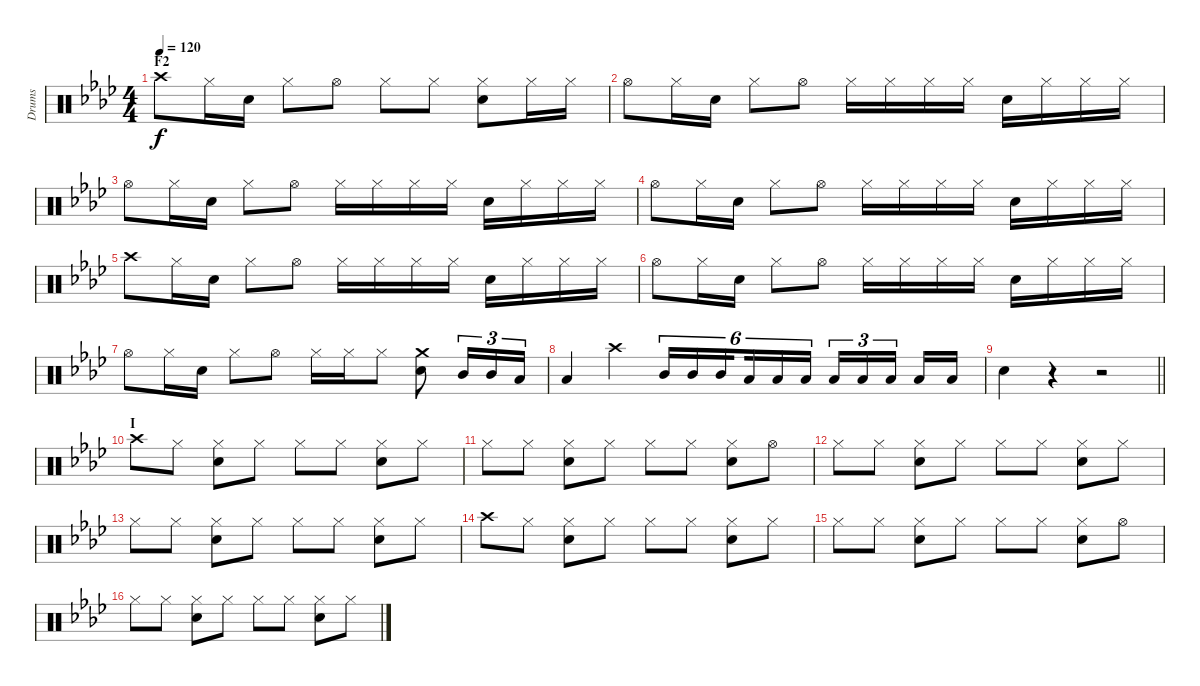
\track ("Drums" "Drums") {instrument percussion}
\staff {score}
\articulation defaults
\ts (4 4)
\section ("" "F2")
\tempo 120
\clef neutral
\ks ab "Crash high (hit)".8{dy f} "Hi-Hat (closed)".16 "Snare (hit) 2".16 "Hi-Hat (closed)".8 "Hi-Hat (open)".8 "Hi-Hat (closed)".8 "Hi-Hat (closed)".8
("Hi-Hat (closed)" "Snare (hit) 2").8 "Hi-Hat (closed)".16 "Hi-Hat (closed)".16 |
"Hi-Hat (open)".8 "Hi-Hat (closed)".16 "Snare (hit) 2".16 "Hi-Hat (closed)".8 "Hi-Hat (open)".8 "Hi-Hat (closed)".16 "Hi-Hat (closed)".16 "Hi-Hat (closed)".16 "Hi-Hat (closed)".16 "Snare (hit) 2".16 "Hi-Hat (closed)".16 "Hi-Hat (closed)".16 "Hi-Hat (closed)".16 |
"Hi-Hat (open)".8 "Hi-Hat (closed)".16 "Snare (hit) 2".16 "Hi-Hat (closed)".8 "Hi-Hat (open)".8 "Hi-Hat (closed)".16 "Hi-Hat (closed)".16 "Hi-Hat (closed)".16 "Hi-Hat (closed)".16 "Snare (hit) 2".16 "Hi-Hat (closed)".16 "Hi-Hat (closed)".16 "Hi-Hat (closed)".16 |
"Hi-Hat (open)".8 "Hi-Hat (closed)".16 "Snare (hit) 2".16 "Hi-Hat (closed)".8 "Hi-Hat (open)".8 "Hi-Hat (closed)".16 "Hi-Hat (closed)".16 "Hi-Hat (closed)".16 "Hi-Hat (closed)".16 "Snare (hit) 2".16 "Hi-Hat (closed)".16 "Hi-Hat (closed)".16 "Hi-Hat (closed)".16 |
"Crash high (hit)".8 "Hi-Hat (closed)".16 "Snare (hit) 2".16 "Hi-Hat (closed)".8 "Hi-Hat (open)".8 "Hi-Hat (closed)".16 "Hi-Hat (closed)".16 "Hi-Hat (closed)".16 "Hi-Hat (closed)".16 "Snare (hit) 2".16 "Hi-Hat (closed)".16 "Hi-Hat (closed)".16 "Hi-Hat (closed)".16 |
"Hi-Hat (open)".8 "Hi-Hat (closed)".16 "Snare (hit) 2".16 "Hi-Hat (closed)".8 "Hi-Hat (open)".8 "Hi-Hat (closed)".16 "Hi-Hat (closed)".16 "Hi-Hat (closed)".16 "Hi-Hat (closed)".16 "Snare (hit) 2".16 "Hi-Hat (closed)".16 "Hi-Hat (closed)".16 "Hi-Hat (closed)".16 |
"Hi-Hat (open)".8 "Hi-Hat (closed)".16 "Snare (hit) 2".16 "Hi-Hat (closed)".8 "Hi-Hat (open)".8 "Hi-Hat (closed)".16 "Hi-Hat (closed)".16 "Hi-Hat (closed)".8 ("Crash medium (hit)" "Snare (hit) 2").8 "Mid Tom (hit)".16{tu (3 2)} "Mid Tom (hit)".16{tu (3 2)} "Low Tom (hit)".16{tu (3 2)} |
"Low Tom (hit)".4 "Crash high (hit)".4 "Mid Tom (hit)".16{tu (6 4)} "Mid Tom (hit)".16{tu (6 4)} "Mid Tom (hit)".16{tu (6 4) beam splitsecondary} "Low Tom (hit)".16{tu (6 4)} "Low Tom (hit)".16{tu (6 4)} "Low Tom (hit)".16{tu (6 4)} "Low Tom (hit)".16{tu (3 2)} "Low Tom (hit)".16{tu (3 2)} "Low Tom (hit)".16{tu (3 2) beam splitsecondary} "Low Tom (hit)".16 "Low Tom (hit)".16 |
\barLineRight lightlight "Snare (hit) 2".4
r.4 r.2 |
\section ("" "I")
"Crash high (hit)".8 "Hi-Hat (closed)".8 ("Hi-Hat (closed)" "Snare (hit) 2").8 "Hi-Hat (closed)".8 "Hi-Hat (closed)".8 "Hi-Hat (closed)".8 ("Hi-Hat (closed)" "Snare (hit) 2").8 "Hi-Hat (closed)".8 |
"Hi-Hat (closed)".8 "Hi-Hat (closed)".8 ("Hi-Hat (closed)" "Snare (hit) 2").8 "Hi-Hat (closed)".8 "Hi-Hat (closed)".8 "Hi-Hat (closed)".8 ("Hi-Hat (closed)" "Snare (hit) 2").8 "Hi-Hat (open)".8 |
"Hi-Hat (closed)".8 "Hi-Hat (closed)".8 ("Hi-Hat (closed)" "Snare (hit) 2").8 "Hi-Hat (closed)".8 "Hi-Hat (closed)".8 "Hi-Hat (closed)".8 ("Hi-Hat (closed)" "Snare (hit) 2").8 "Hi-Hat (closed)".8 |
"Hi-Hat (closed)".8 "Hi-Hat (closed)".8 ("Hi-Hat (closed)" "Snare (hit) 2").8 "Hi-Hat (closed)".8 "Hi-Hat (closed)".8 "Hi-Hat (closed)".8 ("Hi-Hat (closed)" "Snare (hit) 2").8 "Hi-Hat (closed)".8 |
"Crash high (hit)".8 "Hi-Hat (closed)".8 ("Hi-Hat (closed)" "Snare (hit) 2").8 "Hi-Hat (closed)".8 "Hi-Hat (closed)".8 "Hi-Hat (closed)".8 ("Hi-Hat (closed)" "Snare (hit) 2").8 "Hi-Hat (closed)".8 |
"Hi-Hat (closed)".8 "Hi-Hat (closed)".8 ("Hi-Hat (closed)" "Snare (hit) 2").8 "Hi-Hat (closed)".8 "Hi-Hat (closed)".8 "Hi-Hat (closed)".8 ("Hi-Hat (closed)" "Snare (hit) 2").8 "Hi-Hat (open)".8 |
"Hi-Hat (closed)".8 "Hi-Hat (closed)".8 ("Hi-Hat (closed)" "Snare (hit) 2").8 "Hi-Hat (closed)".8 "Hi-Hat (closed)".8 "Hi-Hat (closed)".8 ("Hi-Hat (closed)" "Snare (hit) 2").8 "Hi-Hat (closed)".8
